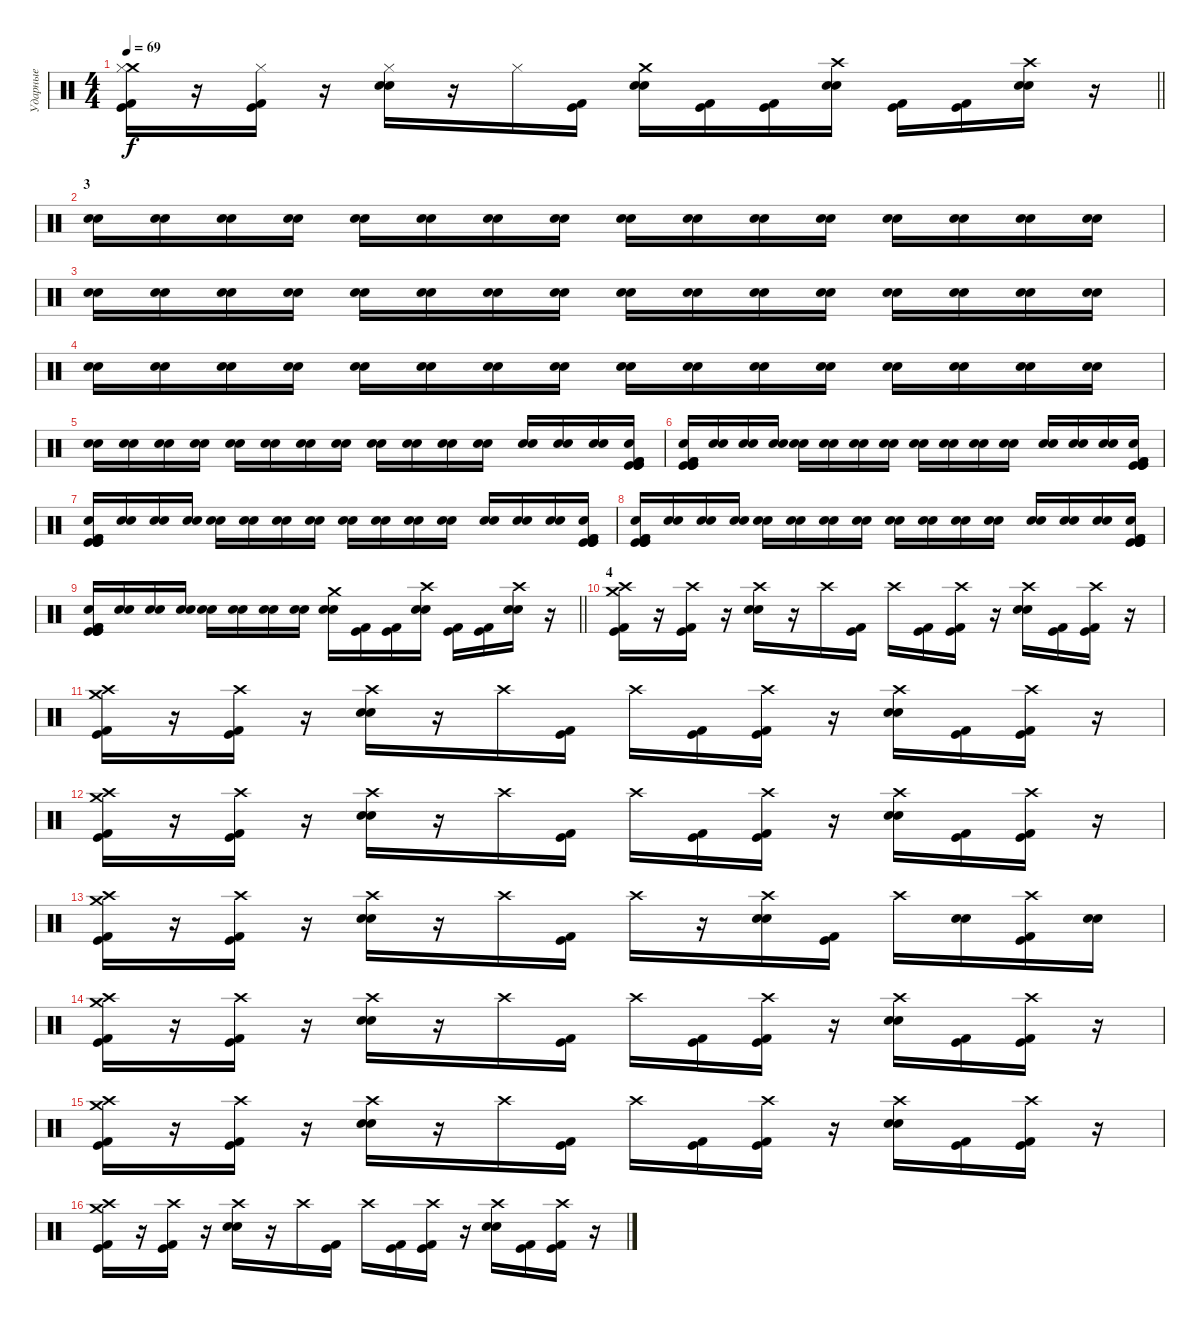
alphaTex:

\track ("Ударные" "Ударные") {instrument percussion}
\staff {score}
\articulation defaults
\ts (4 4)
\tempo 69
\clef neutral
\barLineRight lightlight
\ks c
("Crash medium (hit)" "Hi-Hat (closed)" "Kick (hit) 2" "Kick (hit)").16{dy f} r.16 ("Hi-Hat (closed)" "Kick (hit) 2" "Kick (hit)").16 r.16 ("Hi-Hat (closed)" "Electric Snare (hit)" "Electric Snare (hit)").16 r.16 "Hi-Hat (closed)".16 ("Kick (hit) 2" "Kick (hit)").16 ("Crash medium (hit)" "Electric Snare (hit)" "Electric Snare (hit)").16 ("Kick (hit) 2" "Kick (hit)").16 ("Kick (hit) 2" "Kick (hit)").16 ("Crash high (hit)" "Electric Snare (hit)" "Electric Snare (hit)").16 ("Kick (hit) 2" "Kick (hit)").16 ("Kick (hit) 2" "Kick (hit)").16 ("Crash high (hit)" "Electric Snare (hit)" "Electric Snare (hit)").16 r.16 |
\section ("" "3")
("Electric Snare (hit)" "Electric Snare (hit)").16{volume 0} ("Electric Snare (hit)" "Electric Snare (hit)").16{volume 11} ("Electric Snare (hit)" "Electric Snare (hit)").16 ("Electric Snare (hit)" "Electric Snare (hit)").16 ("Electric Snare (hit)" "Electric Snare (hit)").16 ("Electric Snare (hit)" "Electric Snare (hit)").16 ("Electric Snare (hit)" "Electric Snare (hit)").16 ("Electric Snare (hit)" "Electric Snare (hit)").16 ("Electric Snare (hit)" "Electric Snare (hit)").16 ("Electric Snare (hit)" "Electric Snare (hit)").16 ("Electric Snare (hit)" "Electric Snare (hit)").16 ("Electric Snare (hit)" "Electric Snare (hit)").16 ("Electric Snare (hit)" "Electric Snare (hit)").16 ("Electric Snare (hit)" "Electric Snare (hit)").16 ("Electric Snare (hit)" "Electric Snare (hit)").16 ("Electric Snare (hit)" "Electric Snare (hit)").16 |
("Electric Snare (hit)" "Electric Snare (hit)").16 ("Electric Snare (hit)" "Electric Snare (hit)").16 ("Electric Snare (hit)" "Electric Snare (hit)").16 ("Electric Snare (hit)" "Electric Snare (hit)").16 ("Electric Snare (hit)" "Electric Snare (hit)").16 ("Electric Snare (hit)" "Electric Snare (hit)").16 ("Electric Snare (hit)" "Electric Snare (hit)").16 ("Electric Snare (hit)" "Electric Snare (hit)").16 ("Electric Snare (hit)" "Electric Snare (hit)").16 ("Electric Snare (hit)" "Electric Snare (hit)").16 ("Electric Snare (hit)" "Electric Snare (hit)").16 ("Electric Snare (hit)" "Electric Snare (hit)").16 ("Electric Snare (hit)" "Electric Snare (hit)").16 ("Electric Snare (hit)" "Electric Snare (hit)").16 ("Electric Snare (hit)" "Electric Snare (hit)").16 ("Electric Snare (hit)" "Electric Snare (hit)").16 |
("Electric Snare (hit)" "Electric Snare (hit)").16{volume 16} ("Electric Snare (hit)" "Electric Snare (hit)").16 ("Electric Snare (hit)" "Electric Snare (hit)").16 ("Electric Snare (hit)" "Electric Snare (hit)").16 ("Electric Snare (hit)" "Electric Snare (hit)").16 ("Electric Snare (hit)" "Electric Snare (hit)").16 ("Electric Snare (hit)" "Electric Snare (hit)").16 ("Electric Snare (hit)" "Electric Snare (hit)").16 ("Electric Snare (hit)" "Electric Snare (hit)").16 ("Electric Snare (hit)" "Electric Snare (hit)").16 ("Electric Snare (hit)" "Electric Snare (hit)").16 ("Electric Snare (hit)" "Electric Snare (hit)").16 ("Electric Snare (hit)" "Electric Snare (hit)").16 ("Electric Snare (hit)" "Electric Snare (hit)").16 ("Electric Snare (hit)" "Electric Snare (hit)").16 ("Electric Snare (hit)" "Electric Snare (hit)").16 |
("Electric Snare (hit)" "Electric Snare (hit)").16 ("Electric Snare (hit)" "Electric Snare (hit)").16 ("Electric Snare (hit)" "Electric Snare (hit)").16 ("Electric Snare (hit)" "Electric Snare (hit)").16 ("Electric Snare (hit)" "Electric Snare (hit)").16 ("Electric Snare (hit)" "Electric Snare (hit)").16 ("Electric Snare (hit)" "Electric Snare (hit)").16 ("Electric Snare (hit)" "Electric Snare (hit)").16 ("Electric Snare (hit)" "Electric Snare (hit)").16 ("Electric Snare (hit)" "Electric Snare (hit)").16 ("Electric Snare (hit)" "Electric Snare (hit)").16 ("Electric Snare (hit)" "Electric Snare (hit)").16 ("Electric Snare (hit)" "Electric Snare (hit)").16 ("Electric Snare (hit)" "Electric Snare (hit)").16 ("Electric Snare (hit)" "Electric Snare (hit)").16 ("Kick (hit)" "Kick (hit)" "Kick (hit) 2" "Electric Snare (hit)" "Kick (hit) 2" "Kick (hit)").16 |
("Kick (hit)" "Kick (hit)" "Kick (hit) 2" "Electric Snare (hit)" "Kick (hit) 2" "Kick (hit)").16 ("Electric Snare (hit)" "Electric Snare (hit)").16 ("Electric Snare (hit)" "Electric Snare (hit)").16 ("Electric Snare (hit)" "Electric Snare (hit)").16 ("Electric Snare (hit)" "Electric Snare (hit)").16 ("Electric Snare (hit)" "Electric Snare (hit)").16 ("Electric Snare (hit)" "Electric Snare (hit)").16 ("Electric Snare (hit)" "Electric Snare (hit)").16 ("Electric Snare (hit)" "Electric Snare (hit)").16 ("Electric Snare (hit)" "Electric Snare (hit)").16 ("Electric Snare (hit)" "Electric Snare (hit)").16 ("Electric Snare (hit)" "Electric Snare (hit)").16 ("Electric Snare (hit)" "Electric Snare (hit)").16 ("Electric Snare (hit)" "Electric Snare (hit)").16 ("Electric Snare (hit)" "Electric Snare (hit)").16 ("Kick (hit)" "Kick (hit)" "Kick (hit) 2" "Electric Snare (hit)" "Kick (hit) 2" "Kick (hit)").16 |
("Kick (hit)" "Kick (hit)" "Kick (hit) 2" "Electric Snare (hit)" "Kick (hit) 2" "Kick (hit)").16 ("Electric Snare (hit)" "Electric Snare (hit)").16 ("Electric Snare (hit)" "Electric Snare (hit)").16 ("Electric Snare (hit)" "Electric Snare (hit)").16 ("Electric Snare (hit)" "Electric Snare (hit)").16 ("Electric Snare (hit)" "Electric Snare (hit)").16 ("Electric Snare (hit)" "Electric Snare (hit)").16 ("Electric Snare (hit)" "Electric Snare (hit)").16 ("Electric Snare (hit)" "Electric Snare (hit)").16 ("Electric Snare (hit)" "Electric Snare (hit)").16 ("Electric Snare (hit)" "Electric Snare (hit)").16 ("Electric Snare (hit)" "Electric Snare (hit)").16 ("Electric Snare (hit)" "Electric Snare (hit)").16 ("Electric Snare (hit)" "Electric Snare (hit)").16 ("Electric Snare (hit)" "Electric Snare (hit)").16 ("Kick (hit)" "Kick (hit)" "Kick (hit) 2" "Electric Snare (hit)" "Kick (hit) 2" "Kick (hit)").16 |
("Kick (hit)" "Kick (hit)" "Kick (hit) 2" "Electric Snare (hit)" "Kick (hit) 2" "Kick (hit)").16 ("Electric Snare (hit)" "Electric Snare (hit)").16 ("Electric Snare (hit)" "Electric Snare (hit)").16 ("Electric Snare (hit)" "Electric Snare (hit)").16 ("Electric Snare (hit)" "Electric Snare (hit)").16 ("Electric Snare (hit)" "Electric Snare (hit)").16 ("Electric Snare (hit)" "Electric Snare (hit)").16 ("Electric Snare (hit)" "Electric Snare (hit)").16 ("Electric Snare (hit)" "Electric Snare (hit)").16 ("Electric Snare (hit)" "Electric Snare (hit)").16 ("Electric Snare (hit)" "Electric Snare (hit)").16 ("Electric Snare (hit)" "Electric Snare (hit)").16 ("Electric Snare (hit)" "Electric Snare (hit)").16 ("Electric Snare (hit)" "Electric Snare (hit)").16 ("Electric Snare (hit)" "Electric Snare (hit)").16 ("Kick (hit)" "Kick (hit)" "Kick (hit) 2" "Electric Snare (hit)" "Kick (hit) 2" "Kick (hit)").16 |
\barLineRight lightlight
("Kick (hit)" "Kick (hit)" "Kick (hit) 2" "Electric Snare (hit)" "Kick (hit) 2" "Kick (hit)").16 ("Electric Snare (hit)" "Electric Snare (hit)").16 ("Electric Snare (hit)" "Electric Snare (hit)").16 ("Electric Snare (hit)" "Electric Snare (hit)").16 ("Electric Snare (hit)" "Electric Snare (hit)").16 ("Electric Snare (hit)" "Electric Snare (hit)").16 ("Electric Snare (hit)" "Electric Snare (hit)").16 ("Electric Snare (hit)" "Electric Snare (hit)").16 ("Crash medium (hit)" "Electric Snare (hit)" "Electric Snare (hit)").16 ("Kick (hit) 2" "Kick (hit)").16 ("Kick (hit) 2" "Kick (hit)").16 ("Crash high (hit)" "Electric Snare (hit)" "Electric Snare (hit)").16 ("Kick (hit) 2" "Kick (hit)").16 ("Kick (hit) 2" "Kick (hit)").16 ("Crash high (hit)" "Electric Snare (hit)" "Electric Snare (hit)").16 r.16 |
\section ("" "4")
("Crash medium (hit)" "Crash high (hit)" "Kick (hit) 2" "Kick (hit)").16 r.16 ("Crash high (hit)" "Kick (hit) 2" "Kick (hit)").16 r.16 ("Crash high (hit)" "Electric Snare (hit)" "Electric Snare (hit)").16 r.16 "Crash high (hit)".16 ("Kick (hit) 2" "Kick (hit)").16 "Crash high (hit)".16 ("Kick (hit) 2" "Kick (hit)").16 ("Crash high (hit)" "Kick (hit) 2" "Kick (hit)").16 r.16 ("Crash high (hit)" "Electric Snare (hit)" "Electric Snare (hit)").16 ("Kick (hit) 2" "Kick (hit)").16 ("Crash high (hit)" "Kick (hit) 2" "Kick (hit)").16 r.16 |
("Crash medium (hit)" "Crash high (hit)" "Kick (hit) 2" "Kick (hit)").16 r.16 ("Crash high (hit)" "Kick (hit) 2" "Kick (hit)").16 r.16 ("Crash high (hit)" "Electric Snare (hit)" "Electric Snare (hit)").16 r.16 "Crash high (hit)".16 ("Kick (hit) 2" "Kick (hit)").16 "Crash high (hit)".16 ("Kick (hit) 2" "Kick (hit)").16 ("Crash high (hit)" "Kick (hit) 2" "Kick (hit)").16 r.16 ("Crash high (hit)" "Electric Snare (hit)" "Electric Snare (hit)").16 ("Kick (hit) 2" "Kick (hit)").16 ("Crash high (hit)" "Kick (hit) 2" "Kick (hit)").16 r.16 |
("Crash medium (hit)" "Crash high (hit)" "Kick (hit) 2" "Kick (hit)").16 r.16 ("Crash high (hit)" "Kick (hit) 2" "Kick (hit)").16 r.16 ("Crash high (hit)" "Electric Snare (hit)" "Electric Snare (hit)").16 r.16 "Crash high (hit)".16 ("Kick (hit) 2" "Kick (hit)").16 "Crash high (hit)".16 ("Kick (hit) 2" "Kick (hit)").16 ("Crash high (hit)" "Kick (hit) 2" "Kick (hit)").16 r.16 ("Crash high (hit)" "Electric Snare (hit)" "Electric Snare (hit)").16 ("Kick (hit) 2" "Kick (hit)").16 ("Crash high (hit)" "Kick (hit) 2" "Kick (hit)").16 r.16 |
("Crash medium (hit)" "Crash high (hit)" "Kick (hit) 2" "Kick (hit)").16 r.16 ("Crash high (hit)" "Kick (hit) 2" "Kick (hit)").16 r.16 ("Crash high (hit)" "Electric Snare (hit)" "Electric Snare (hit)").16 r.16 "Crash high (hit)".16 ("Kick (hit) 2" "Kick (hit)").16 "Crash high (hit)".16 r.16 ("Crash high (hit)" "Electric Snare (hit)" "Electric Snare (hit)").16 ("Kick (hit) 2" "Kick (hit)").16 "Crash high (hit)".16 ("Electric Snare (hit)" "Electric Snare (hit)").16 ("Crash high (hit)" "Kick (hit) 2" "Kick (hit)").16 ("Electric Snare (hit)" "Electric Snare (hit)").16 |
("Crash medium (hit)" "Crash high (hit)" "Kick (hit) 2" "Kick (hit)").16 r.16 ("Crash high (hit)" "Kick (hit) 2" "Kick (hit)").16 r.16 ("Crash high (hit)" "Electric Snare (hit)" "Electric Snare (hit)").16 r.16 "Crash high (hit)".16 ("Kick (hit) 2" "Kick (hit)").16 "Crash high (hit)".16 ("Kick (hit) 2" "Kick (hit)").16 ("Crash high (hit)" "Kick (hit) 2" "Kick (hit)").16 r.16 ("Crash high (hit)" "Electric Snare (hit)" "Electric Snare (hit)").16 ("Kick (hit) 2" "Kick (hit)").16 ("Crash high (hit)" "Kick (hit) 2" "Kick (hit)").16 r.16 |
("Crash medium (hit)" "Crash high (hit)" "Kick (hit) 2" "Kick (hit)").16 r.16 ("Crash high (hit)" "Kick (hit) 2" "Kick (hit)").16 r.16 ("Crash high (hit)" "Electric Snare (hit)" "Electric Snare (hit)").16 r.16 "Crash high (hit)".16 ("Kick (hit) 2" "Kick (hit)").16 "Crash high (hit)".16 ("Kick (hit) 2" "Kick (hit)").16 ("Crash high (hit)" "Kick (hit) 2" "Kick (hit)").16 r.16 ("Crash high (hit)" "Electric Snare (hit)" "Electric Snare (hit)").16 ("Kick (hit) 2" "Kick (hit)").16 ("Crash high (hit)" "Kick (hit) 2" "Kick (hit)").16 r.16 |
("Crash medium (hit)" "Crash high (hit)" "Kick (hit) 2" "Kick (hit)").16 r.16 ("Crash high (hit)" "Kick (hit) 2" "Kick (hit)").16 r.16 ("Crash high (hit)" "Electric Snare (hit)" "Electric Snare (hit)").16 r.16 "Crash high (hit)".16 ("Kick (hit) 2" "Kick (hit)").16 "Crash high (hit)".16 ("Kick (hit) 2" "Kick (hit)").16 ("Crash high (hit)" "Kick (hit) 2" "Kick (hit)").16 r.16 ("Crash high (hit)" "Electric Snare (hit)" "Electric Snare (hit)").16 ("Kick (hit) 2" "Kick (hit)").16 ("Crash high (hit)" "Kick (hit) 2" "Kick (hit)").16 r.16
